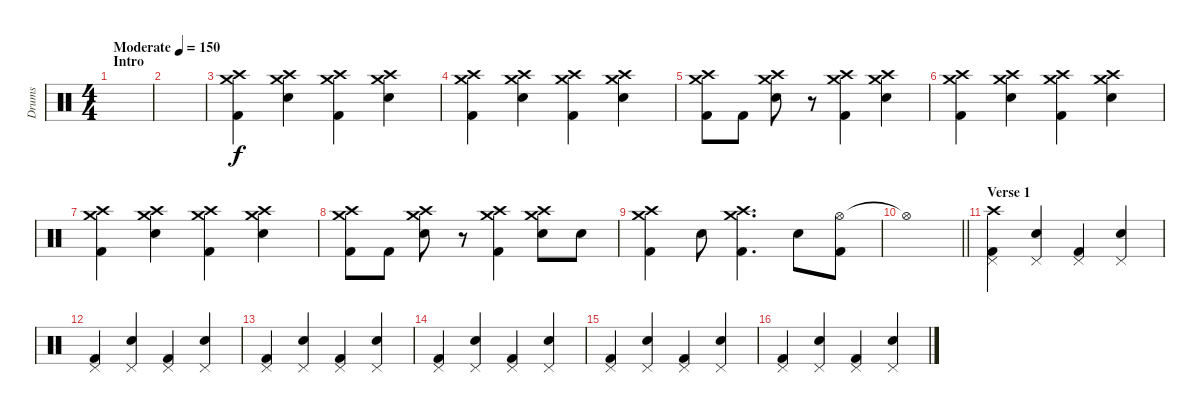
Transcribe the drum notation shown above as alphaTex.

\track ("Drums" "Drums") {instrument percussion}
\staff {score}
\articulation defaults
\ts (4 4)
\section ("" "Intro")
\tempo (150 "Moderate")
\clef neutral
\ks c
|
|
("Crash medium (hit)" "Crash high (hit)" "Kick (hit) 2").4 ("Crash medium (hit)" "Crash high (hit)" "Electric Snare (hit)").4 ("Crash medium (hit)" "Crash high (hit)" "Kick (hit) 2").4 ("Crash medium (hit)" "Crash high (hit)" "Electric Snare (hit)").4 |
("Crash medium (hit)" "Crash high (hit)" "Kick (hit) 2").4 ("Crash medium (hit)" "Crash high (hit)" "Electric Snare (hit)").4 ("Crash medium (hit)" "Crash high (hit)" "Kick (hit) 2").4 ("Crash medium (hit)" "Crash high (hit)" "Electric Snare (hit)").4 |
("Crash medium (hit)" "Crash high (hit)" "Kick (hit) 2").8 "Kick (hit) 2".8 ("Crash medium (hit)" "Crash high (hit)" "Electric Snare (hit)").8 r.8 ("Crash medium (hit)" "Crash high (hit)" "Kick (hit) 2").4 ("Crash medium (hit)" "Crash high (hit)" "Electric Snare (hit)").4 |
("Crash medium (hit)" "Crash high (hit)" "Kick (hit) 2").4 ("Crash medium (hit)" "Crash high (hit)" "Electric Snare (hit)").4 ("Crash medium (hit)" "Crash high (hit)" "Kick (hit) 2").4 ("Crash medium (hit)" "Crash high (hit)" "Electric Snare (hit)").4 |
("Crash medium (hit)" "Crash high (hit)" "Kick (hit) 2").4 ("Crash medium (hit)" "Crash high (hit)" "Electric Snare (hit)").4 ("Crash medium (hit)" "Crash high (hit)" "Kick (hit) 2").4 ("Crash medium (hit)" "Crash high (hit)" "Electric Snare (hit)").4 |
("Crash medium (hit)" "Crash high (hit)" "Kick (hit) 2").8 "Kick (hit) 2".8 ("Crash medium (hit)" "Crash high (hit)" "Electric Snare (hit)").8 r.8 ("Crash medium (hit)" "Crash high (hit)" "Kick (hit) 2").4 ("Crash medium (hit)" "Crash high (hit)" "Electric Snare (hit)").8 "Electric Snare (hit)".8 |
("Crash medium (hit)" "Crash high (hit)" "Kick (hit) 2").4 "Electric Snare (hit)".8 ("Crash medium (hit)" "Crash high (hit)" "Kick (hit) 2").4{d} "Electric Snare (hit)".8 ("Hi-Hat (open)" "Kick (hit) 2").8 |
\barLineRight lightlight "Hi-Hat (open)"{t}.1
|
\section ("" "Verse 1")
("Pedal Hi-Hat (hit)" "Crash high (hit)" "Kick (hit) 2").4 ("Pedal Hi-Hat (hit)" "Electric Snare (hit)").4 ("Pedal Hi-Hat (hit)" "Kick (hit) 2").4 ("Pedal Hi-Hat (hit)" "Electric Snare (hit)").4 |
("Pedal Hi-Hat (hit)" "Kick (hit) 2").4 ("Pedal Hi-Hat (hit)" "Electric Snare (hit)").4 ("Pedal Hi-Hat (hit)" "Kick (hit) 2").4 ("Pedal Hi-Hat (hit)" "Electric Snare (hit)").4 |
("Pedal Hi-Hat (hit)" "Kick (hit) 2").4 ("Pedal Hi-Hat (hit)" "Electric Snare (hit)").4 ("Pedal Hi-Hat (hit)" "Kick (hit) 2").4 ("Pedal Hi-Hat (hit)" "Electric Snare (hit)").4 |
("Pedal Hi-Hat (hit)" "Kick (hit) 2").4 ("Pedal Hi-Hat (hit)" "Electric Snare (hit)").4 ("Pedal Hi-Hat (hit)" "Kick (hit) 2").4 ("Pedal Hi-Hat (hit)" "Electric Snare (hit)").4 |
("Pedal Hi-Hat (hit)" "Kick (hit) 2").4 ("Pedal Hi-Hat (hit)" "Electric Snare (hit)").4 ("Pedal Hi-Hat (hit)" "Kick (hit) 2").4 ("Pedal Hi-Hat (hit)" "Electric Snare (hit)").4 |
("Pedal Hi-Hat (hit)" "Kick (hit) 2").4 ("Pedal Hi-Hat (hit)" "Electric Snare (hit)").4 ("Pedal Hi-Hat (hit)" "Kick (hit) 2").4 ("Pedal Hi-Hat (hit)" "Electric Snare (hit)").4
